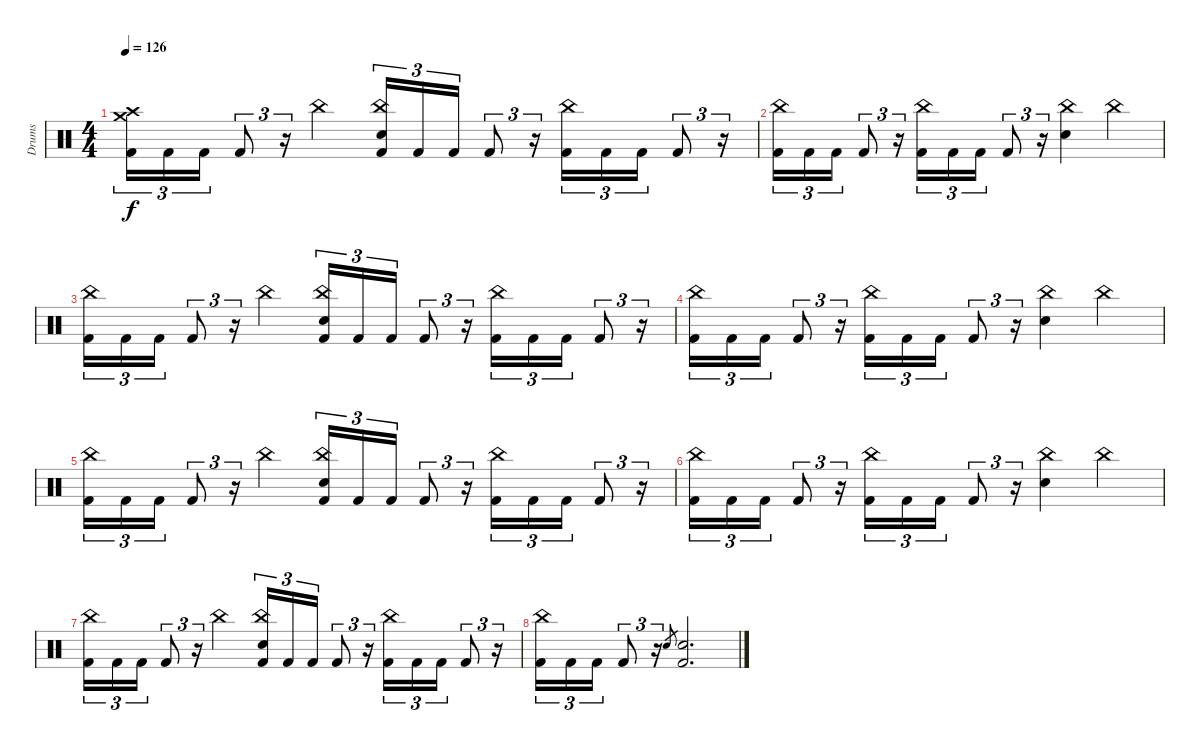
\track ("Drums" "Drums") {instrument percussion}
\staff {score}
\articulation defaults
\ts (4 4)
\tempo 126
\clef neutral
\ks c
("Crash medium (hit)" "Crash high (hit)" "Kick (hit) 2").16{tu (3 2) dy f} "Kick (hit) 2".16{tu (3 2)} "Kick (hit) 2".16{tu (3 2)} "Kick (hit) 2".8{tu (3 2)} r.16{tu (3 2)} "China (hit)".4 ("China (hit)" "Electric Snare (hit)" "Kick (hit) 2").16{tu (3 2)} "Kick (hit) 2".16{tu (3 2)} "Kick (hit) 2".16{tu (3 2)} "Kick (hit) 2".8{tu (3 2)} r.16{tu (3 2)} ("China (hit)" "Kick (hit) 2").16{tu (3 2)} "Kick (hit) 2".16{tu (3 2)} "Kick (hit) 2".16{tu (3 2)} "Kick (hit) 2".8{tu (3 2)} r.16{tu (3 2)} |
("China (hit)" "Kick (hit) 2").16{tu (3 2)} "Kick (hit) 2".16{tu (3 2)} "Kick (hit) 2".16{tu (3 2)} "Kick (hit) 2".8{tu (3 2)} r.16{tu (3 2)} ("China (hit)" "Kick (hit) 2").16{tu (3 2)} "Kick (hit) 2".16{tu (3 2)} "Kick (hit) 2".16{tu (3 2)} "Kick (hit) 2".8{tu (3 2)} r.16{tu (3 2)} ("China (hit)" "Electric Snare (hit)").4 "China (hit)".4 |
("China (hit)" "Kick (hit) 2").16{tu (3 2)} "Kick (hit) 2".16{tu (3 2)} "Kick (hit) 2".16{tu (3 2)} "Kick (hit) 2".8{tu (3 2)} r.16{tu (3 2)} "China (hit)".4 ("China (hit)" "Electric Snare (hit)" "Kick (hit) 2").16{tu (3 2)} "Kick (hit) 2".16{tu (3 2)} "Kick (hit) 2".16{tu (3 2)} "Kick (hit) 2".8{tu (3 2)} r.16{tu (3 2)} ("China (hit)" "Kick (hit) 2").16{tu (3 2)} "Kick (hit) 2".16{tu (3 2)} "Kick (hit) 2".16{tu (3 2)} "Kick (hit) 2".8{tu (3 2)} r.16{tu (3 2)} |
("China (hit)" "Kick (hit) 2").16{tu (3 2)} "Kick (hit) 2".16{tu (3 2)} "Kick (hit) 2".16{tu (3 2)} "Kick (hit) 2".8{tu (3 2)} r.16{tu (3 2)} ("China (hit)" "Kick (hit) 2").16{tu (3 2)} "Kick (hit) 2".16{tu (3 2)} "Kick (hit) 2".16{tu (3 2)} "Kick (hit) 2".8{tu (3 2)} r.16{tu (3 2)} ("China (hit)" "Electric Snare (hit)").4 "China (hit)".4 |
("China (hit)" "Kick (hit) 2").16{tu (3 2)} "Kick (hit) 2".16{tu (3 2)} "Kick (hit) 2".16{tu (3 2)} "Kick (hit) 2".8{tu (3 2)} r.16{tu (3 2)} "China (hit)".4 ("China (hit)" "Electric Snare (hit)" "Kick (hit) 2").16{tu (3 2)} "Kick (hit) 2".16{tu (3 2)} "Kick (hit) 2".16{tu (3 2)} "Kick (hit) 2".8{tu (3 2)} r.16{tu (3 2)} ("China (hit)" "Kick (hit) 2").16{tu (3 2)} "Kick (hit) 2".16{tu (3 2)} "Kick (hit) 2".16{tu (3 2)} "Kick (hit) 2".8{tu (3 2)} r.16{tu (3 2)} |
("China (hit)" "Kick (hit) 2").16{tu (3 2)} "Kick (hit) 2".16{tu (3 2)} "Kick (hit) 2".16{tu (3 2)} "Kick (hit) 2".8{tu (3 2)} r.16{tu (3 2)} ("China (hit)" "Kick (hit) 2").16{tu (3 2)} "Kick (hit) 2".16{tu (3 2)} "Kick (hit) 2".16{tu (3 2)} "Kick (hit) 2".8{tu (3 2)} r.16{tu (3 2)} ("China (hit)" "Electric Snare (hit)").4 "China (hit)".4 |
("China (hit)" "Kick (hit) 2").16{tu (3 2)} "Kick (hit) 2".16{tu (3 2)} "Kick (hit) 2".16{tu (3 2)} "Kick (hit) 2".8{tu (3 2)} r.16{tu (3 2)} "China (hit)".4 ("China (hit)" "Electric Snare (hit)" "Kick (hit) 2").16{tu (3 2)} "Kick (hit) 2".16{tu (3 2)} "Kick (hit) 2".16{tu (3 2)} "Kick (hit) 2".8{tu (3 2)} r.16{tu (3 2)} ("China (hit)" "Kick (hit) 2").16{tu (3 2)} "Kick (hit) 2".16{tu (3 2)} "Kick (hit) 2".16{tu (3 2)} "Kick (hit) 2".8{tu (3 2)} r.16{tu (3 2)} |
("China (hit)" "Kick (hit) 2").16{tu (3 2)} "Kick (hit) 2".16{tu (3 2)} "Kick (hit) 2".16{tu (3 2)} "Kick (hit) 2".8{tu (3 2)} r.16{tu (3 2)} "Electric Snare (hit)".8{gr} ("Electric Snare (hit)" "Kick (hit) 2").2{d}
